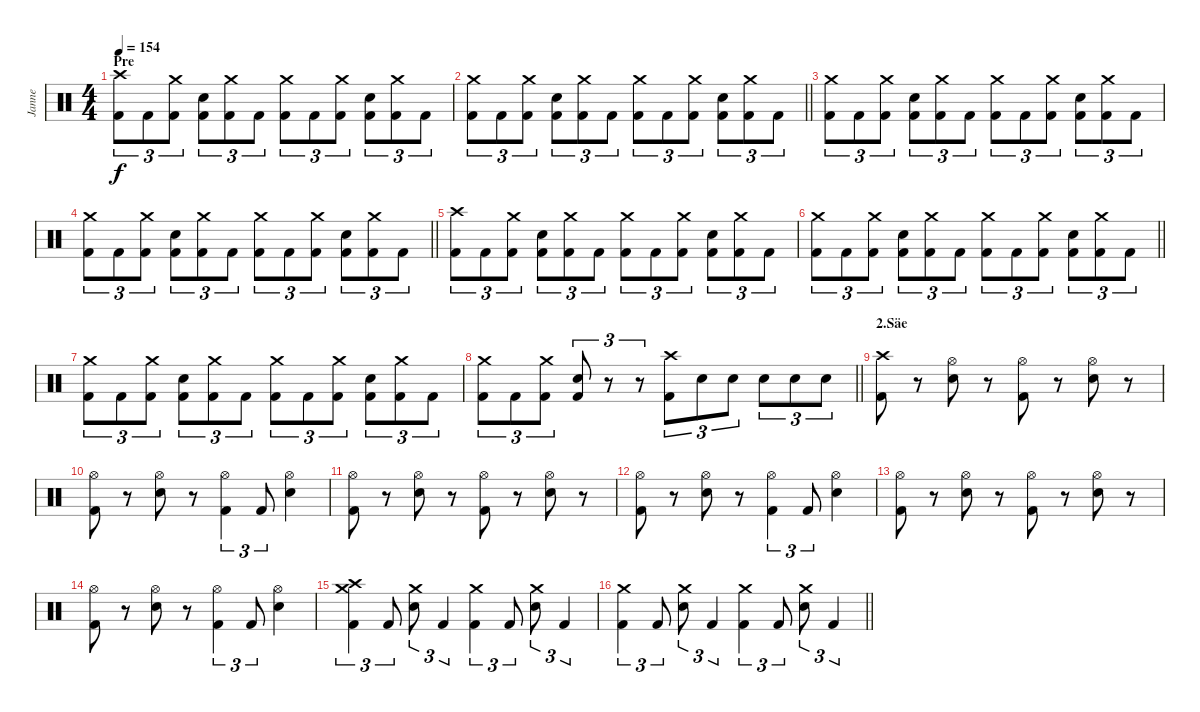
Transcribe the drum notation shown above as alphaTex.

\track ("Janne" "Janne") {instrument percussion}
\staff {score}
\articulation defaults
\ts (4 4)
\section ("" "Pre")
\tempo 154
\clef neutral
\ks c
("Crash high (hit)" "Kick (hit) 2").8{tu (3 2) dy f} "Kick (hit) 2".8{tu (3 2)} ("Crash medium (hit)" "Kick (hit) 2").8{tu (3 2)} ("Electric Snare (hit)" "Kick (hit) 2").8{tu (3 2)} ("Crash medium (hit)" "Kick (hit) 2").8{tu (3 2)} "Kick (hit) 2".8{tu (3 2)} ("Crash medium (hit)" "Kick (hit) 2").8{tu (3 2)} "Kick (hit) 2".8{tu (3 2)} ("Crash medium (hit)" "Kick (hit) 2").8{tu (3 2)} ("Electric Snare (hit)" "Kick (hit) 2").8{tu (3 2)} ("Crash medium (hit)" "Kick (hit) 2").8{tu (3 2)} "Kick (hit) 2".8{tu (3 2)} |
\barLineRight lightlight
("Crash medium (hit)" "Kick (hit) 2").8{tu (3 2)} "Kick (hit) 2".8{tu (3 2)} ("Crash medium (hit)" "Kick (hit) 2").8{tu (3 2)} ("Electric Snare (hit)" "Kick (hit) 2").8{tu (3 2)} ("Crash medium (hit)" "Kick (hit) 2").8{tu (3 2)} "Kick (hit) 2".8{tu (3 2)} ("Crash medium (hit)" "Kick (hit) 2").8{tu (3 2)} "Kick (hit) 2".8{tu (3 2)} ("Crash medium (hit)" "Kick (hit) 2").8{tu (3 2)} ("Electric Snare (hit)" "Kick (hit) 2").8{tu (3 2)} ("Crash medium (hit)" "Kick (hit) 2").8{tu (3 2)} "Kick (hit) 2".8{tu (3 2)} |
("Crash medium (hit)" "Kick (hit) 2").8{tu (3 2)} "Kick (hit) 2".8{tu (3 2)} ("Crash medium (hit)" "Kick (hit) 2").8{tu (3 2)} ("Electric Snare (hit)" "Kick (hit) 2").8{tu (3 2)} ("Crash medium (hit)" "Kick (hit) 2").8{tu (3 2)} "Kick (hit) 2".8{tu (3 2)} ("Crash medium (hit)" "Kick (hit) 2").8{tu (3 2)} "Kick (hit) 2".8{tu (3 2)} ("Crash medium (hit)" "Kick (hit) 2").8{tu (3 2)} ("Electric Snare (hit)" "Kick (hit) 2").8{tu (3 2)} ("Crash medium (hit)" "Kick (hit) 2").8{tu (3 2)} "Kick (hit) 2".8{tu (3 2)} |
\barLineRight lightlight
("Crash medium (hit)" "Kick (hit) 2").8{tu (3 2)} "Kick (hit) 2".8{tu (3 2)} ("Crash medium (hit)" "Kick (hit) 2").8{tu (3 2)} ("Electric Snare (hit)" "Kick (hit) 2").8{tu (3 2)} ("Crash medium (hit)" "Kick (hit) 2").8{tu (3 2)} "Kick (hit) 2".8{tu (3 2)} ("Crash medium (hit)" "Kick (hit) 2").8{tu (3 2)} "Kick (hit) 2".8{tu (3 2)} ("Crash medium (hit)" "Kick (hit) 2").8{tu (3 2)} ("Electric Snare (hit)" "Kick (hit) 2").8{tu (3 2)} ("Crash medium (hit)" "Kick (hit) 2").8{tu (3 2)} "Kick (hit) 2".8{tu (3 2)} |
("Crash high (hit)" "Kick (hit) 2").8{tu (3 2)} "Kick (hit) 2".8{tu (3 2)} ("Crash medium (hit)" "Kick (hit) 2").8{tu (3 2)} ("Electric Snare (hit)" "Kick (hit) 2").8{tu (3 2)} ("Crash medium (hit)" "Kick (hit) 2").8{tu (3 2)} "Kick (hit) 2".8{tu (3 2)} ("Crash medium (hit)" "Kick (hit) 2").8{tu (3 2)} "Kick (hit) 2".8{tu (3 2)} ("Crash medium (hit)" "Kick (hit) 2").8{tu (3 2)} ("Electric Snare (hit)" "Kick (hit) 2").8{tu (3 2)} ("Crash medium (hit)" "Kick (hit) 2").8{tu (3 2)} "Kick (hit) 2".8{tu (3 2)} |
\barLineRight lightlight
("Crash medium (hit)" "Kick (hit) 2").8{tu (3 2)} "Kick (hit) 2".8{tu (3 2)} ("Crash medium (hit)" "Kick (hit) 2").8{tu (3 2)} ("Electric Snare (hit)" "Kick (hit) 2").8{tu (3 2)} ("Crash medium (hit)" "Kick (hit) 2").8{tu (3 2)} "Kick (hit) 2".8{tu (3 2)} ("Crash medium (hit)" "Kick (hit) 2").8{tu (3 2)} "Kick (hit) 2".8{tu (3 2)} ("Crash medium (hit)" "Kick (hit) 2").8{tu (3 2)} ("Electric Snare (hit)" "Kick (hit) 2").8{tu (3 2)} ("Crash medium (hit)" "Kick (hit) 2").8{tu (3 2)} "Kick (hit) 2".8{tu (3 2)} |
("Crash medium (hit)" "Kick (hit) 2").8{tu (3 2)} "Kick (hit) 2".8{tu (3 2)} ("Crash medium (hit)" "Kick (hit) 2").8{tu (3 2)} ("Electric Snare (hit)" "Kick (hit) 2").8{tu (3 2)} ("Crash medium (hit)" "Kick (hit) 2").8{tu (3 2)} "Kick (hit) 2".8{tu (3 2)} ("Crash medium (hit)" "Kick (hit) 2").8{tu (3 2)} "Kick (hit) 2".8{tu (3 2)} ("Crash medium (hit)" "Kick (hit) 2").8{tu (3 2)} ("Electric Snare (hit)" "Kick (hit) 2").8{tu (3 2)} ("Crash medium (hit)" "Kick (hit) 2").8{tu (3 2)} "Kick (hit) 2".8{tu (3 2)} |
\barLineRight lightlight
("Crash medium (hit)" "Kick (hit) 2").8{tu (3 2)} "Kick (hit) 2".8{tu (3 2)} ("Crash medium (hit)" "Kick (hit) 2").8{tu (3 2)} ("Electric Snare (hit)" "Kick (hit) 2").8{tu (3 2)} r.8{tu (3 2)} r.8{tu (3 2)} ("Crash high (hit)" "Kick (hit) 2").8{tu (3 2)} "Electric Snare (hit)".8{tu (3 2)} "Electric Snare (hit)".8{tu (3 2)} "Electric Snare (hit)".8{tu (3 2)} "Electric Snare (hit)".8{tu (3 2)} "Electric Snare (hit)".8{tu (3 2)} |
\section ("" "2.Säe")
("Crash high (hit)" "Kick (hit) 2").8 r.8 ("Hi-Hat (open)" "Electric Snare (hit)").8 r.8 ("Hi-Hat (open)" "Kick (hit) 2").8 r.8 ("Hi-Hat (open)" "Electric Snare (hit)").8 r.8 |
("Hi-Hat (open)" "Kick (hit) 2").8 r.8 ("Hi-Hat (open)" "Electric Snare (hit)").8 r.8 ("Hi-Hat (open)" "Kick (hit) 2").4{tu (3 2)} "Kick (hit) 2".8{tu (3 2)} ("Hi-Hat (open)" "Electric Snare (hit)").4 |
("Hi-Hat (open)" "Kick (hit) 2").8 r.8 ("Hi-Hat (open)" "Electric Snare (hit)").8 r.8 ("Hi-Hat (open)" "Kick (hit) 2").8 r.8 ("Hi-Hat (open)" "Electric Snare (hit)").8 r.8 |
("Hi-Hat (open)" "Kick (hit) 2").8 r.8 ("Hi-Hat (open)" "Electric Snare (hit)").8 r.8 ("Hi-Hat (open)" "Kick (hit) 2").4{tu (3 2)} "Kick (hit) 2".8{tu (3 2)} ("Hi-Hat (open)" "Electric Snare (hit)").4 |
("Hi-Hat (open)" "Kick (hit) 2").8 r.8 ("Hi-Hat (open)" "Electric Snare (hit)").8 r.8 ("Hi-Hat (open)" "Kick (hit) 2").8 r.8 ("Hi-Hat (open)" "Electric Snare (hit)").8 r.8 |
("Hi-Hat (open)" "Kick (hit) 2").8 r.8 ("Hi-Hat (open)" "Electric Snare (hit)").8 r.8 ("Hi-Hat (open)" "Kick (hit) 2").4{tu (3 2)} "Kick (hit) 2".8{tu (3 2)} ("Hi-Hat (open)" "Electric Snare (hit)").4 |
("Crash high (hit)" "Crash medium (hit)" "Kick (hit) 2").4{tu (3 2)} "Kick (hit) 2".8{tu (3 2)} ("Crash medium (hit)" "Electric Snare (hit)").8{tu (3 2)} "Kick (hit) 2".4{tu (3 2)} ("Crash medium (hit)" "Kick (hit) 2").4{tu (3 2)} "Kick (hit) 2".8{tu (3 2)} ("Crash medium (hit)" "Electric Snare (hit)").8{tu (3 2)} "Kick (hit) 2".4{tu (3 2)} |
\barLineRight lightlight
("Crash medium (hit)" "Kick (hit) 2").4{tu (3 2)} "Kick (hit) 2".8{tu (3 2)} ("Crash medium (hit)" "Electric Snare (hit)").8{tu (3 2)} "Kick (hit) 2".4{tu (3 2)} ("Crash medium (hit)" "Kick (hit) 2").4{tu (3 2)} "Kick (hit) 2".8{tu (3 2)} ("Crash medium (hit)" "Electric Snare (hit)").8{tu (3 2)} "Kick (hit) 2".4{tu (3 2)}
